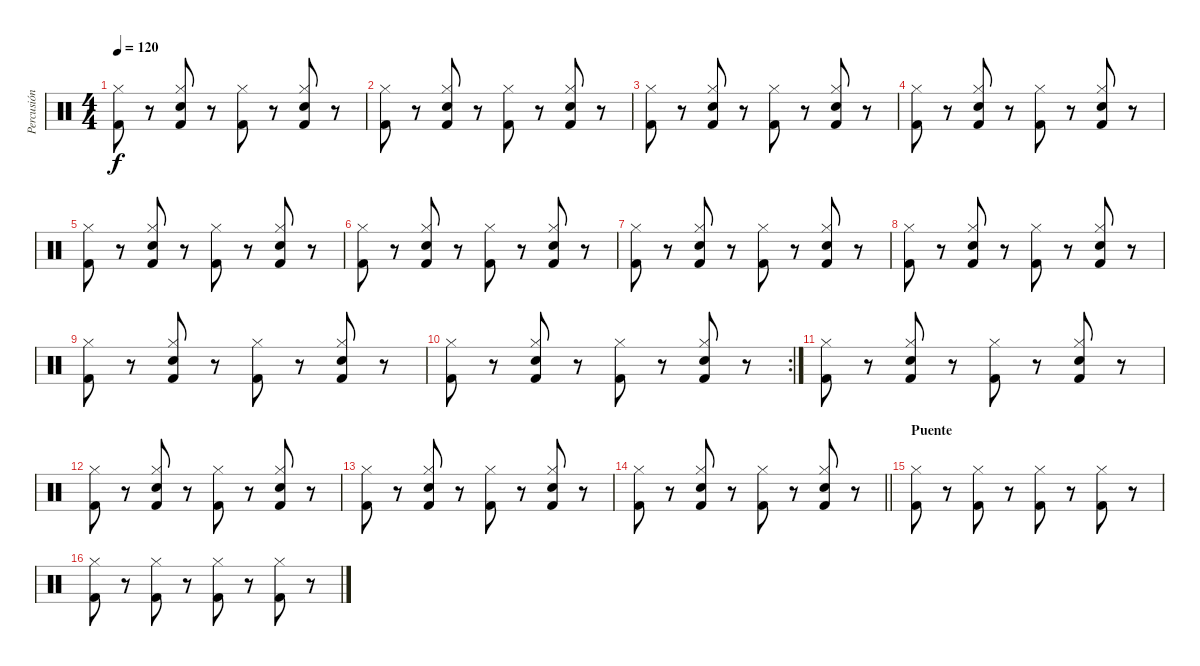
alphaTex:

\track ("Percusión" "Percusión") {instrument percussion}
\staff {score}
\articulation defaults
\ts (4 4)
\tempo 120
\clef neutral
\ks c
("Kick (hit) 2" "Hi-Hat (closed)").8{dy f} r.8 ("Kick (hit) 2" "Hi-Hat (closed)" "Snare (hit) 2").8 r.8 ("Kick (hit) 2" "Hi-Hat (closed)").8 r.8 ("Kick (hit) 2" "Hi-Hat (closed)" "Snare (hit) 2").8 r.8 |
("Kick (hit) 2" "Hi-Hat (closed)").8 r.8 ("Kick (hit) 2" "Hi-Hat (closed)" "Snare (hit) 2").8 r.8 ("Kick (hit) 2" "Hi-Hat (closed)").8 r.8 ("Kick (hit) 2" "Hi-Hat (closed)" "Snare (hit) 2").8 r.8 |
("Kick (hit) 2" "Hi-Hat (closed)").8 r.8 ("Kick (hit) 2" "Hi-Hat (closed)" "Snare (hit) 2").8 r.8 ("Kick (hit) 2" "Hi-Hat (closed)").8 r.8 ("Kick (hit) 2" "Hi-Hat (closed)" "Snare (hit) 2").8 r.8 |
("Kick (hit) 2" "Hi-Hat (closed)").8 r.8 ("Kick (hit) 2" "Hi-Hat (closed)" "Snare (hit) 2").8 r.8 ("Kick (hit) 2" "Hi-Hat (closed)").8 r.8 ("Kick (hit) 2" "Hi-Hat (closed)" "Snare (hit) 2").8 r.8 |
("Kick (hit) 2" "Hi-Hat (closed)").8 r.8 ("Kick (hit) 2" "Hi-Hat (closed)" "Snare (hit) 2").8 r.8 ("Kick (hit) 2" "Hi-Hat (closed)").8 r.8 ("Kick (hit) 2" "Hi-Hat (closed)" "Snare (hit) 2").8 r.8 |
("Kick (hit) 2" "Hi-Hat (closed)").8 r.8 ("Kick (hit) 2" "Hi-Hat (closed)" "Snare (hit) 2").8 r.8 ("Kick (hit) 2" "Hi-Hat (closed)").8 r.8 ("Kick (hit) 2" "Hi-Hat (closed)" "Snare (hit) 2").8 r.8 |
("Kick (hit) 2" "Hi-Hat (closed)").8 r.8 ("Kick (hit) 2" "Hi-Hat (closed)" "Snare (hit) 2").8 r.8 ("Kick (hit) 2" "Hi-Hat (closed)").8 r.8 ("Kick (hit) 2" "Hi-Hat (closed)" "Snare (hit) 2").8 r.8 |
("Kick (hit) 2" "Hi-Hat (closed)").8 r.8 ("Kick (hit) 2" "Hi-Hat (closed)" "Snare (hit) 2").8 r.8 ("Kick (hit) 2" "Hi-Hat (closed)").8 r.8 ("Kick (hit) 2" "Hi-Hat (closed)" "Snare (hit) 2").8 r.8 |
("Kick (hit) 2" "Hi-Hat (closed)").8 r.8 ("Kick (hit) 2" "Hi-Hat (closed)" "Snare (hit) 2").8 r.8 ("Kick (hit) 2" "Hi-Hat (closed)").8 r.8 ("Kick (hit) 2" "Hi-Hat (closed)" "Snare (hit) 2").8 r.8 |
\rc 2
("Kick (hit) 2" "Hi-Hat (closed)").8 r.8 ("Kick (hit) 2" "Hi-Hat (closed)" "Snare (hit) 2").8 r.8 ("Kick (hit) 2" "Hi-Hat (closed)").8 r.8 ("Kick (hit) 2" "Hi-Hat (closed)" "Snare (hit) 2").8 r.8 |
("Kick (hit) 2" "Hi-Hat (closed)").8 r.8 ("Kick (hit) 2" "Hi-Hat (closed)" "Snare (hit) 2").8 r.8 ("Kick (hit) 2" "Hi-Hat (closed)").8 r.8 ("Kick (hit) 2" "Hi-Hat (closed)" "Snare (hit) 2").8 r.8 |
("Kick (hit) 2" "Hi-Hat (closed)").8 r.8 ("Kick (hit) 2" "Hi-Hat (closed)" "Snare (hit) 2").8 r.8 ("Kick (hit) 2" "Hi-Hat (closed)").8 r.8 ("Kick (hit) 2" "Hi-Hat (closed)" "Snare (hit) 2").8 r.8 |
("Kick (hit) 2" "Hi-Hat (closed)").8 r.8 ("Kick (hit) 2" "Hi-Hat (closed)" "Snare (hit) 2").8 r.8 ("Kick (hit) 2" "Hi-Hat (closed)").8 r.8 ("Kick (hit) 2" "Hi-Hat (closed)" "Snare (hit) 2").8 r.8 |
\barLineRight lightlight
("Kick (hit) 2" "Hi-Hat (closed)").8 r.8 ("Kick (hit) 2" "Hi-Hat (closed)" "Snare (hit) 2").8 r.8 ("Kick (hit) 2" "Hi-Hat (closed)").8 r.8 ("Kick (hit) 2" "Hi-Hat (closed)" "Snare (hit) 2").8 r.8 |
\section ("" "Puente")
("Kick (hit) 2" "Hi-Hat (closed)").8 r.8 ("Kick (hit) 2" "Hi-Hat (closed)").8 r.8 ("Kick (hit) 2" "Hi-Hat (closed)").8 r.8 ("Kick (hit) 2" "Hi-Hat (closed)").8 r.8 |
("Kick (hit) 2" "Hi-Hat (closed)").8 r.8 ("Kick (hit) 2" "Hi-Hat (closed)").8 r.8 ("Kick (hit) 2" "Hi-Hat (closed)").8 r.8 ("Kick (hit) 2" "Hi-Hat (closed)").8 r.8
